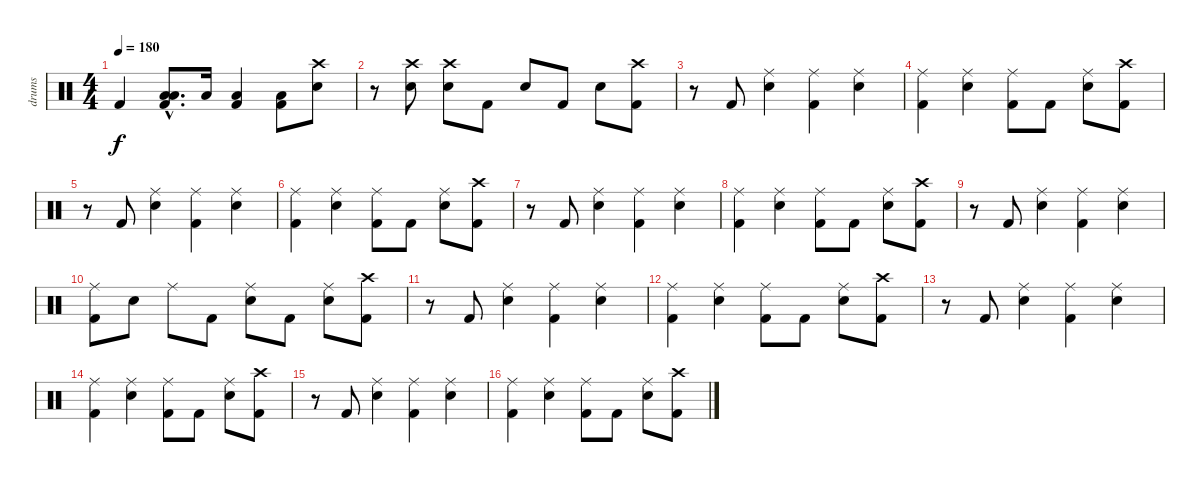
\track ("drums" "drums") {instrument percussion}
\staff {score}
\articulation defaults
\ts (4 4)
\tempo 180
\clef neutral
\ks c "Kick (hit) 2".4{dy f}
("Low Tom (hit)"{hac} "Low Floor Tom (hit)"{hac} "Kick (hit) 2"{hac}).8{d} "Low Tom (hit)".16 ("Low Floor Tom (hit)" "Kick (hit) 2").4 ("Low Floor Tom (hit)" "Kick (hit) 2").8 ("Crash high (hit)" "Electric Snare (hit)").8 |
r.8 ("Crash high (hit)" "Electric Snare (hit)").8 ("Crash high (hit)" "Electric Snare (hit)").8 "Kick (hit) 2".8 "Electric Snare (hit)".8 "Kick (hit) 2".8 "Electric Snare (hit)".8 ("Crash high (hit)" "Kick (hit) 2").8 |
r.8 "Kick (hit) 2".8 ("Ride (middle)" "Electric Snare (hit)").4 ("Ride (middle)" "Kick (hit) 2").4 ("Ride (middle)" "Electric Snare (hit)").4 |
("Ride (middle)" "Kick (hit) 2").4 ("Ride (middle)" "Electric Snare (hit)").4 ("Ride (middle)" "Kick (hit) 2").8 "Kick (hit) 2".8 ("Ride (middle)" "Electric Snare (hit)").8 ("Crash high (hit)" "Kick (hit) 2").8 |
r.8 "Kick (hit) 2".8 ("Ride (middle)" "Electric Snare (hit)").4 ("Ride (middle)" "Kick (hit) 2").4 ("Ride (middle)" "Electric Snare (hit)").4 |
("Ride (middle)" "Kick (hit) 2").4 ("Ride (middle)" "Electric Snare (hit)").4 ("Ride (middle)" "Kick (hit) 2").8 "Kick (hit) 2".8 ("Ride (middle)" "Electric Snare (hit)").8 ("Crash high (hit)" "Kick (hit) 2").8 |
r.8 "Kick (hit) 2".8 ("Ride (middle)" "Electric Snare (hit)").4 ("Ride (middle)" "Kick (hit) 2").4 ("Ride (middle)" "Electric Snare (hit)").4 |
("Ride (middle)" "Kick (hit) 2").4 ("Ride (middle)" "Electric Snare (hit)").4 ("Ride (middle)" "Kick (hit) 2").8 "Kick (hit) 2".8 ("Ride (middle)" "Electric Snare (hit)").8 ("Crash high (hit)" "Kick (hit) 2").8 |
r.8 "Kick (hit) 2".8 ("Ride (middle)" "Electric Snare (hit)").4 ("Ride (middle)" "Kick (hit) 2").4 ("Ride (middle)" "Electric Snare (hit)").4 |
("Ride (middle)" "Kick (hit) 2").8 "Electric Snare (hit)".8 "Ride (middle)".8 "Kick (hit) 2".8 ("Ride (middle)" "Electric Snare (hit)").8 "Kick (hit) 2".8 ("Ride (middle)" "Electric Snare (hit)").8 ("Crash high (hit)" "Kick (hit) 2").8 |
r.8 "Kick (hit) 2".8 ("Ride (middle)" "Electric Snare (hit)").4 ("Ride (middle)" "Kick (hit) 2").4 ("Ride (middle)" "Electric Snare (hit)").4 |
("Ride (middle)" "Kick (hit) 2").4 ("Ride (middle)" "Electric Snare (hit)").4 ("Ride (middle)" "Kick (hit) 2").8 "Kick (hit) 2".8 ("Ride (middle)" "Electric Snare (hit)").8 ("Crash high (hit)" "Kick (hit) 2").8 |
r.8 "Kick (hit) 2".8 ("Ride (middle)" "Electric Snare (hit)").4 ("Ride (middle)" "Kick (hit) 2").4 ("Ride (middle)" "Electric Snare (hit)").4 |
("Ride (middle)" "Kick (hit) 2").4 ("Ride (middle)" "Electric Snare (hit)").4 ("Ride (middle)" "Kick (hit) 2").8 "Kick (hit) 2".8 ("Ride (middle)" "Electric Snare (hit)").8 ("Crash high (hit)" "Kick (hit) 2").8 |
r.8 "Kick (hit) 2".8 ("Ride (middle)" "Electric Snare (hit)").4 ("Ride (middle)" "Kick (hit) 2").4 ("Ride (middle)" "Electric Snare (hit)").4 |
("Ride (middle)" "Kick (hit) 2").4 ("Ride (middle)" "Electric Snare (hit)").4 ("Ride (middle)" "Kick (hit) 2").8 "Kick (hit) 2".8 ("Ride (middle)" "Electric Snare (hit)").8 ("Crash high (hit)" "Kick (hit) 2").8
